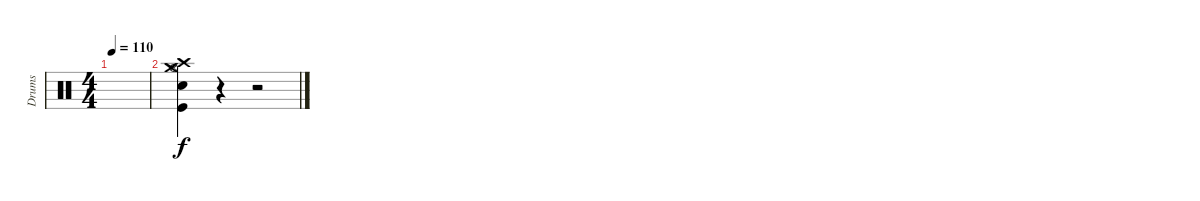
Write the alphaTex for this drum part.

\track ("Drums" "Drums") {instrument percussion}
\staff {score}
\articulation defaults
\ts (4 4)
\tempo 110
\clef neutral
\ks c
|
("Snare (hit) 2" "Kick (hit)" "Hi-Hat (open)" "Crash high (hit)" "Crash medium (hit)").4 r.4 r.2
